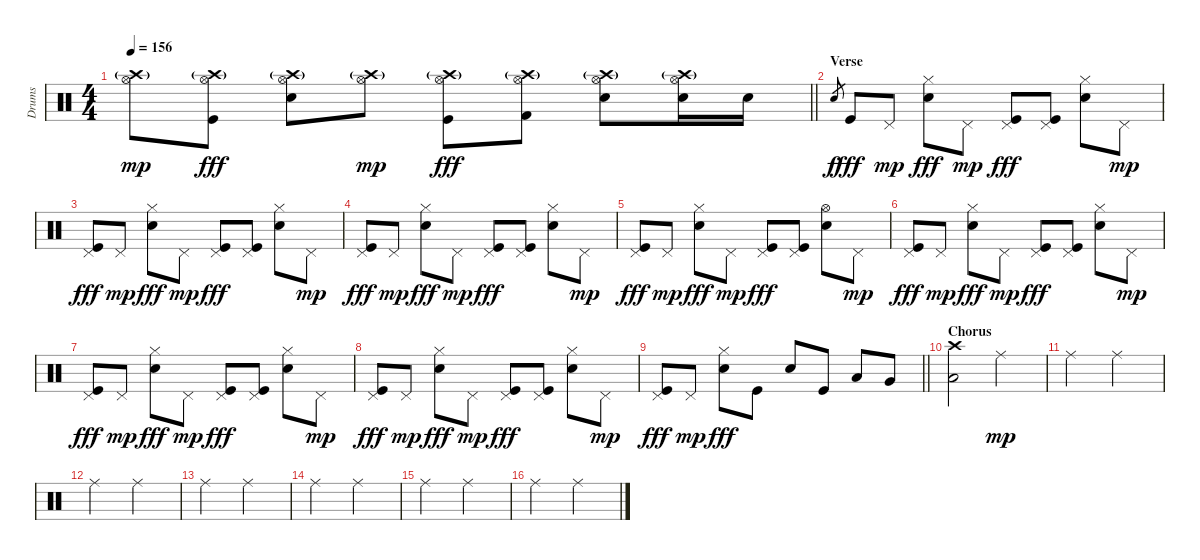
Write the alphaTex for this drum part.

\track ("Drums" "Drums") {instrument percussion}
\staff {score}
\articulation defaults
\ts (4 4)
\tempo 156
\clef neutral
\barLineRight lightlight
\ks c
("Crash high (hit)"{g} "Hi-Hat (open)").8{dy mp} ("Crash high (hit)"{g} "Hi-Hat (open)" "Kick (hit)").8{dy fff} ("Crash high (hit)"{g} "Hi-Hat (open)" "Snare (hit) 2").8 ("Crash high (hit)"{g} "Hi-Hat (open)").8{dy mp} ("Crash high (hit)"{g} "Hi-Hat (open)" "Kick (hit)").8{dy fff} ("Crash high (hit)"{g} "Hi-Hat (open)" "Kick (hit) 2").8 ("Crash high (hit)"{g} "Hi-Hat (open)" "Snare (hit) 2").8 ("Crash high (hit)"{g} "Hi-Hat (open)" "Snare (hit) 2").16 "Snare (hit) 2".16 |
\section ("" "Verse")
"Snare (hit) 2".8{gr dy f} "Kick (hit)".8{dy fff} "Pedal Hi-Hat (hit)".8{dy mp} ("Hi-Hat (closed)" "Snare (hit) 2").8{dy fff} "Pedal Hi-Hat (hit)".8{dy mp} ("Pedal Hi-Hat (hit)" "Kick (hit)").8{dy fff} ("Pedal Hi-Hat (hit)" "Kick (hit)").8 ("Hi-Hat (closed)" "Snare (hit) 2").8 "Pedal Hi-Hat (hit)".8{dy mp} |
("Pedal Hi-Hat (hit)" "Kick (hit)").8{dy fff} "Pedal Hi-Hat (hit)".8{dy mp} ("Hi-Hat (closed)" "Snare (hit) 2").8{dy fff} "Pedal Hi-Hat (hit)".8{dy mp} ("Pedal Hi-Hat (hit)" "Kick (hit)").8{dy fff} ("Pedal Hi-Hat (hit)" "Kick (hit)").8 ("Hi-Hat (closed)" "Snare (hit) 2").8 "Pedal Hi-Hat (hit)".8{dy mp} |
("Pedal Hi-Hat (hit)" "Kick (hit)").8{dy fff} "Pedal Hi-Hat (hit)".8{dy mp} ("Hi-Hat (closed)" "Snare (hit) 2").8{dy fff} "Pedal Hi-Hat (hit)".8{dy mp} ("Pedal Hi-Hat (hit)" "Kick (hit)").8{dy fff} ("Pedal Hi-Hat (hit)" "Kick (hit)").8 ("Hi-Hat (closed)" "Snare (hit) 2").8 "Pedal Hi-Hat (hit)".8{dy mp} |
("Pedal Hi-Hat (hit)" "Kick (hit)").8{dy fff} "Pedal Hi-Hat (hit)".8{dy mp} ("Hi-Hat (closed)" "Snare (hit) 2").8{dy fff} "Pedal Hi-Hat (hit)".8{dy mp} ("Pedal Hi-Hat (hit)" "Kick (hit)").8{dy fff} ("Pedal Hi-Hat (hit)" "Kick (hit)").8 ("Hi-Hat (open)" "Snare (hit) 2").8 "Pedal Hi-Hat (hit)".8{dy mp} |
("Pedal Hi-Hat (hit)" "Kick (hit)").8{dy fff} "Pedal Hi-Hat (hit)".8{dy mp} ("Hi-Hat (closed)" "Snare (hit) 2").8{dy fff} "Pedal Hi-Hat (hit)".8{dy mp} ("Pedal Hi-Hat (hit)" "Kick (hit)").8{dy fff} ("Pedal Hi-Hat (hit)" "Kick (hit)").8 ("Hi-Hat (closed)" "Snare (hit) 2").8 "Pedal Hi-Hat (hit)".8{dy mp} |
("Pedal Hi-Hat (hit)" "Kick (hit)").8{dy fff} "Pedal Hi-Hat (hit)".8{dy mp} ("Hi-Hat (closed)" "Snare (hit) 2").8{dy fff} "Pedal Hi-Hat (hit)".8{dy mp} ("Pedal Hi-Hat (hit)" "Kick (hit)").8{dy fff} ("Pedal Hi-Hat (hit)" "Kick (hit)").8 ("Hi-Hat (closed)" "Snare (hit) 2").8 "Pedal Hi-Hat (hit)".8{dy mp} |
("Pedal Hi-Hat (hit)" "Kick (hit)").8{dy fff} "Pedal Hi-Hat (hit)".8{dy mp} ("Hi-Hat (closed)" "Snare (hit) 2").8{dy fff} "Pedal Hi-Hat (hit)".8{dy mp} ("Pedal Hi-Hat (hit)" "Kick (hit)").8{dy fff} ("Pedal Hi-Hat (hit)" "Kick (hit)").8 ("Hi-Hat (closed)" "Snare (hit) 2").8 "Pedal Hi-Hat (hit)".8{dy mp} |
\barLineRight lightlight
("Pedal Hi-Hat (hit)" "Kick (hit)").8{dy fff} "Pedal Hi-Hat (hit)".8{dy mp} ("Hi-Hat (closed)" "Snare (hit) 2").8{dy fff} "Kick (hit)".8 "Snare (hit) 2".8 "Kick (hit)".8 "Low Tom (hit)".8 "Very Low Tom (hit)".8 |
\section ("" "Chorus")
("Crash high (hit)" "Low Floor Tom (hit)").2 "Ride (middle)".2{dy mp} |
"Ride (middle)".2 "Ride (middle)".2 |
"Ride (middle)".2 "Ride (middle)".2 |
"Ride (middle)".2 "Ride (middle)".2 |
"Ride (middle)".2 "Ride (middle)".2 |
"Ride (middle)".2 "Ride (middle)".2 |
"Ride (middle)".2 "Ride (middle)".2
